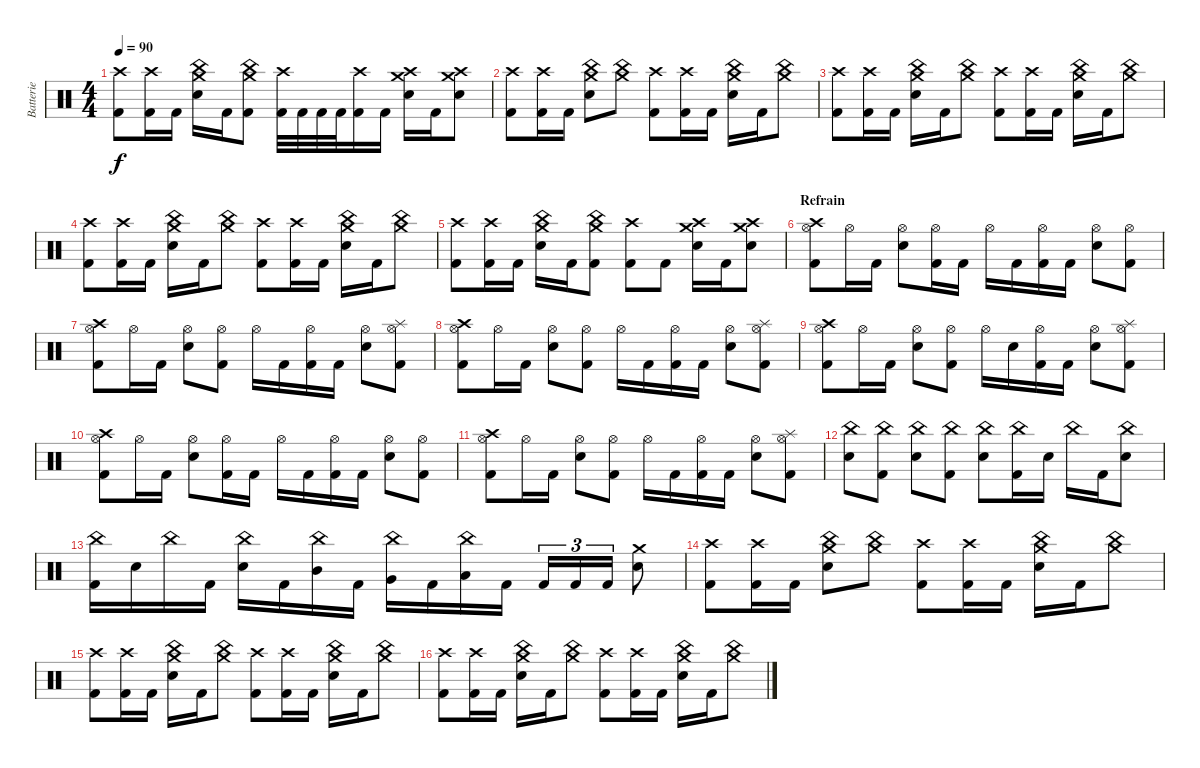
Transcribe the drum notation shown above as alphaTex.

\track ("Batterie" "Batterie") {instrument percussion}
\staff {score}
\articulation defaults
\ts (4 4)
\tempo 90
\clef neutral
\ks c
("Crash high (hit)" "Kick (hit) 2").8{dy f} ("Crash high (hit)" "Kick (hit) 2").16 "Kick (hit) 2".16 ("China (hit)" "Crash medium (hit)" "Snare (hit) 2").16 "Kick (hit) 2".16 ("China (hit)" "Crash medium (hit)" "Kick (hit) 2").8 ("Crash high (hit)" "Kick (hit) 2").32 "Kick (hit) 2".32 "Kick (hit) 2".32 "Kick (hit) 2".32 ("Crash high (hit)" "Kick (hit) 2").16 "Kick (hit) 2".16 ("Crash high (hit)" "Crash medium (hit)" "Snare (hit) 2").16 "Kick (hit) 2".16 ("Crash high (hit)" "Crash medium (hit)" "Snare (hit) 2").8 |
("Crash high (hit)" "Kick (hit) 2").8 ("Crash high (hit)" "Kick (hit) 2").16 "Kick (hit) 2".16 ("China (hit)" "Crash medium (hit)" "Snare (hit) 2").8 ("China (hit)" "Crash medium (hit)").8 ("Crash high (hit)" "Kick (hit) 2").8 ("Crash high (hit)" "Kick (hit) 2").16 "Kick (hit) 2".16 ("China (hit)" "Crash medium (hit)" "Snare (hit) 2").16 "Kick (hit) 2".16 ("China (hit)" "Crash medium (hit)").8 |
("Crash high (hit)" "Kick (hit) 2").8 ("Crash high (hit)" "Kick (hit) 2").16 "Kick (hit) 2".16 ("China (hit)" "Crash medium (hit)" "Snare (hit) 2").16 "Kick (hit) 2".16 ("China (hit)" "Crash medium (hit)").8 ("Crash high (hit)" "Kick (hit) 2").8 ("Crash high (hit)" "Kick (hit) 2").16 "Kick (hit) 2".16 ("China (hit)" "Crash medium (hit)" "Snare (hit) 2").16 "Kick (hit) 2".16 ("China (hit)" "Crash medium (hit)").8 |
("Crash high (hit)" "Kick (hit) 2").8 ("Crash high (hit)" "Kick (hit) 2").16 "Kick (hit) 2".16 ("China (hit)" "Crash medium (hit)" "Snare (hit) 2").16 "Kick (hit) 2".16 ("China (hit)" "Crash medium (hit)").8 ("Crash high (hit)" "Kick (hit) 2").8 ("Crash high (hit)" "Kick (hit) 2").16 "Kick (hit) 2".16 ("China (hit)" "Crash medium (hit)" "Snare (hit) 2").16 "Kick (hit) 2".16 ("China (hit)" "Crash medium (hit)").8 |
("Crash high (hit)" "Kick (hit) 2").8 ("Crash high (hit)" "Kick (hit) 2").16 "Kick (hit) 2".16 ("China (hit)" "Crash medium (hit)" "Snare (hit) 2").16 "Kick (hit) 2".16 ("China (hit)" "Crash medium (hit)" "Kick (hit) 2").8 ("Crash high (hit)" "Kick (hit) 2").8 "Kick (hit) 2".8 ("Crash high (hit)" "Crash medium (hit)" "Snare (hit) 2").16 "Kick (hit) 2".16 ("Crash high (hit)" "Crash medium (hit)" "Snare (hit) 2").8 |
\section ("" "Refrain")
("Hi-Hat (open)" "Crash high (hit)" "Kick (hit) 2").8 "Hi-Hat (open)".16 "Kick (hit) 2".16 ("Hi-Hat (open)" "Electric Snare (hit)").8 ("Hi-Hat (open)" "Kick (hit) 2").16 "Kick (hit) 2".16 "Hi-Hat (open)".16 "Kick (hit) 2".16 ("Hi-Hat (open)" "Kick (hit) 2").16 "Kick (hit) 2".16 ("Hi-Hat (open)" "Electric Snare (hit)").8 ("Hi-Hat (open)" "Kick (hit) 2").8 |
("Hi-Hat (open)" "Crash high (hit)" "Kick (hit) 2").8 "Hi-Hat (open)".16 "Kick (hit) 2".16 ("Hi-Hat (open)" "Electric Snare (hit)").8 ("Hi-Hat (open)" "Kick (hit) 2").8 "Hi-Hat (open)".16 "Kick (hit) 2".16 ("Hi-Hat (open)" "Kick (hit) 2").16 "Kick (hit) 2".16 ("Hi-Hat (open)" "Electric Snare (hit)").8 ("Hi-Hat (open)" "Splash (hit)" "Kick (hit) 2").8 |
("Hi-Hat (open)" "Crash high (hit)" "Kick (hit) 2").8 "Hi-Hat (open)".16 "Kick (hit) 2".16 ("Hi-Hat (open)" "Electric Snare (hit)").8 ("Hi-Hat (open)" "Kick (hit) 2").8 "Hi-Hat (open)".16 "Kick (hit) 2".16 ("Hi-Hat (open)" "Kick (hit) 2").16 "Kick (hit) 2".16 ("Hi-Hat (open)" "Electric Snare (hit)").8 ("Hi-Hat (open)" "Splash (hit)" "Kick (hit) 2").8 |
("Hi-Hat (open)" "Crash high (hit)" "Kick (hit) 2").8 "Hi-Hat (open)".16 "Kick (hit) 2".16 ("Hi-Hat (open)" "Electric Snare (hit)").8 ("Hi-Hat (open)" "Kick (hit) 2").8 "Hi-Hat (open)".16 "Electric Snare (hit)".16 ("Hi-Hat (open)" "Kick (hit) 2").16 "Kick (hit) 2".16 ("Hi-Hat (open)" "Electric Snare (hit)").8 ("Hi-Hat (open)" "Splash (hit)" "Kick (hit) 2").8 |
("Hi-Hat (open)" "Crash high (hit)" "Kick (hit) 2").8 "Hi-Hat (open)".16 "Kick (hit) 2".16 ("Hi-Hat (open)" "Electric Snare (hit)").8 ("Hi-Hat (open)" "Kick (hit) 2").16 "Kick (hit) 2".16 "Hi-Hat (open)".16 "Kick (hit) 2".16 ("Hi-Hat (open)" "Kick (hit) 2").16 "Kick (hit) 2".16 ("Hi-Hat (open)" "Electric Snare (hit)").8 ("Hi-Hat (open)" "Kick (hit) 2").8 |
("Hi-Hat (open)" "Crash high (hit)" "Kick (hit) 2").8 "Hi-Hat (open)".16 "Kick (hit) 2".16 ("Hi-Hat (open)" "Electric Snare (hit)").8 ("Hi-Hat (open)" "Kick (hit) 2").8 "Hi-Hat (open)".16 "Kick (hit) 2".16 ("Hi-Hat (open)" "Kick (hit) 2").16 "Kick (hit) 2".16 ("Hi-Hat (open)" "Electric Snare (hit)").8 ("Hi-Hat (open)" "Splash (hit)" "Kick (hit) 2").8 |
("China (hit)" "Electric Snare (hit)").8 ("China (hit)" "Kick (hit) 2").8 ("China (hit)" "Electric Snare (hit)").8 ("China (hit)" "Kick (hit) 2").8 ("China (hit)" "Electric Snare (hit)").8 ("China (hit)" "Kick (hit) 2").16 "Electric Snare (hit)".16 "China (hit)".16 "Kick (hit) 2".16 ("China (hit)" "Electric Snare (hit)").8 |
("China (hit)" "Kick (hit) 2").16 "Electric Snare (hit)".16 "China (hit)".16 "Kick (hit) 2".16 ("China (hit)" "Electric Snare (hit)").16 "Kick (hit) 2".16 ("China (hit)" "Mid Tom (hit)").16 "Kick (hit) 2".16 ("China (hit)" "Very Low Tom (hit)").16 "Kick (hit) 2".16 ("China (hit)" "Low Floor Tom (hit)").16 "Kick (hit) 2".16 "Kick (hit) 2".16{tu (3 2)} "Kick (hit) 2".16{tu (3 2)} "Kick (hit) 2".16{tu (3 2)} ("Crash medium (hit)" "Snare (hit) 2").8 |
("Crash high (hit)" "Kick (hit) 2").8{volume 16} ("Crash high (hit)" "Kick (hit) 2").16 "Kick (hit) 2".16 ("China (hit)" "Crash medium (hit)" "Snare (hit) 2").8 ("China (hit)" "Crash medium (hit)").8 ("Crash high (hit)" "Kick (hit) 2").8 ("Crash high (hit)" "Kick (hit) 2").16 "Kick (hit) 2".16 ("China (hit)" "Crash medium (hit)" "Snare (hit) 2").16 "Kick (hit) 2".16 ("China (hit)" "Crash medium (hit)").8 |
("Crash high (hit)" "Kick (hit) 2").8 ("Crash high (hit)" "Kick (hit) 2").16 "Kick (hit) 2".16 ("China (hit)" "Crash medium (hit)" "Snare (hit) 2").16 "Kick (hit) 2".16 ("China (hit)" "Crash medium (hit)").8 ("Crash high (hit)" "Kick (hit) 2").8 ("Crash high (hit)" "Kick (hit) 2").16 "Kick (hit) 2".16 ("China (hit)" "Crash medium (hit)" "Snare (hit) 2").16 "Kick (hit) 2".16 ("China (hit)" "Crash medium (hit)").8 |
("Crash high (hit)" "Kick (hit) 2").8 ("Crash high (hit)" "Kick (hit) 2").16 "Kick (hit) 2".16 ("China (hit)" "Crash medium (hit)" "Snare (hit) 2").16 "Kick (hit) 2".16 ("China (hit)" "Crash medium (hit)").8 ("Crash high (hit)" "Kick (hit) 2").8 ("Crash high (hit)" "Kick (hit) 2").16 "Kick (hit) 2".16 ("China (hit)" "Crash medium (hit)" "Snare (hit) 2").16 "Kick (hit) 2".16 ("China (hit)" "Crash medium (hit)").8
